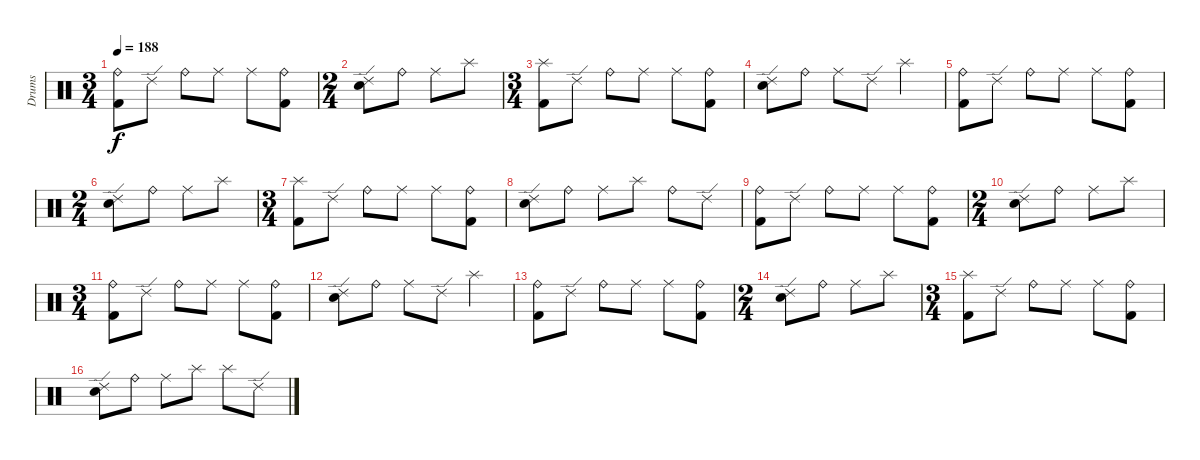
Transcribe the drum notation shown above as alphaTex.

\track ("Drums" "Drums") {instrument percussion}
\staff {score}
\articulation defaults
\ts (3 4)
\tempo 188
\clef neutral
\ks c
("Ride (bell)" "Kick (hit) 2").8{dy f} "Ride (edge) 2".8 "Ride (bell)".8 "Ride (middle)".8 "Ride (middle)".8 ("Ride (bell)" "Kick (hit) 2").8 |
\ts (2 4)
("Electric Snare (hit)" "Ride (edge) 2").8 "Ride (bell)".8 "Ride (middle)".8 "Splash (hit)".8 |
\ts (3 4)
("Splash (hit)" "Kick (hit) 2").8 "Ride (edge) 2".8 "Ride (bell)".8 "Ride (middle)".8 "Ride (middle)".8 ("Ride (bell)" "Kick (hit) 2").8 |
("Electric Snare (hit)" "Ride (edge) 2").8 "Ride (bell)".8 "Ride (middle)".8 "Ride (edge) 2".8 "Splash (hit)".4 |
("Ride (bell)" "Kick (hit) 2").8 "Ride (edge) 2".8 "Ride (bell)".8 "Ride (middle)".8 "Ride (middle)".8 ("Ride (bell)" "Kick (hit) 2").8 |
\ts (2 4)
("Electric Snare (hit)" "Ride (edge) 2").8 "Ride (bell)".8 "Ride (middle)".8 "Splash (hit)".8 |
\ts (3 4)
("Splash (hit)" "Kick (hit) 2").8 "Ride (edge) 2".8 "Ride (bell)".8 "Ride (middle)".8 "Ride (middle)".8 ("Ride (bell)" "Kick (hit) 2").8 |
("Electric Snare (hit)" "Ride (edge) 2").8 "Ride (bell)".8 "Ride (middle)".8 "Splash (hit)".8 "Ride (bell)".8 "Ride (edge) 2".8 |
("Ride (bell)" "Kick (hit) 2").8 "Ride (edge) 2".8 "Ride (bell)".8 "Ride (middle)".8 "Ride (middle)".8 ("Ride (bell)" "Kick (hit) 2").8 |
\ts (2 4)
("Electric Snare (hit)" "Ride (edge) 2").8 "Ride (bell)".8 "Ride (middle)".8 "Splash (hit)".8 |
\ts (3 4)
("Ride (bell)" "Kick (hit) 2").8 "Ride (edge) 2".8 "Ride (bell)".8 "Ride (middle)".8 "Ride (middle)".8 ("Ride (bell)" "Kick (hit) 2").8 |
("Electric Snare (hit)" "Ride (edge) 2").8 "Ride (bell)".8 "Ride (middle)".8 "Ride (edge) 2".8 "Splash (hit)".4 |
("Ride (bell)" "Kick (hit) 2").8 "Ride (edge) 2".8 "Ride (bell)".8 "Ride (middle)".8 "Ride (middle)".8 ("Ride (bell)" "Kick (hit) 2").8 |
\ts (2 4)
("Electric Snare (hit)" "Ride (edge) 2").8 "Ride (bell)".8 "Ride (middle)".8 "Splash (hit)".8 |
\ts (3 4)
("Splash (hit)" "Kick (hit) 2").8 "Ride (edge) 2".8 "Ride (bell)".8 "Ride (middle)".8 "Ride (middle)".8 ("Ride (bell)" "Kick (hit) 2").8 |
("Electric Snare (hit)" "Ride (edge) 2").8 "Ride (bell)".8 "Ride (middle)".8 "Splash (hit)".8 "Splash (hit)".8 "Ride (edge) 2".8
